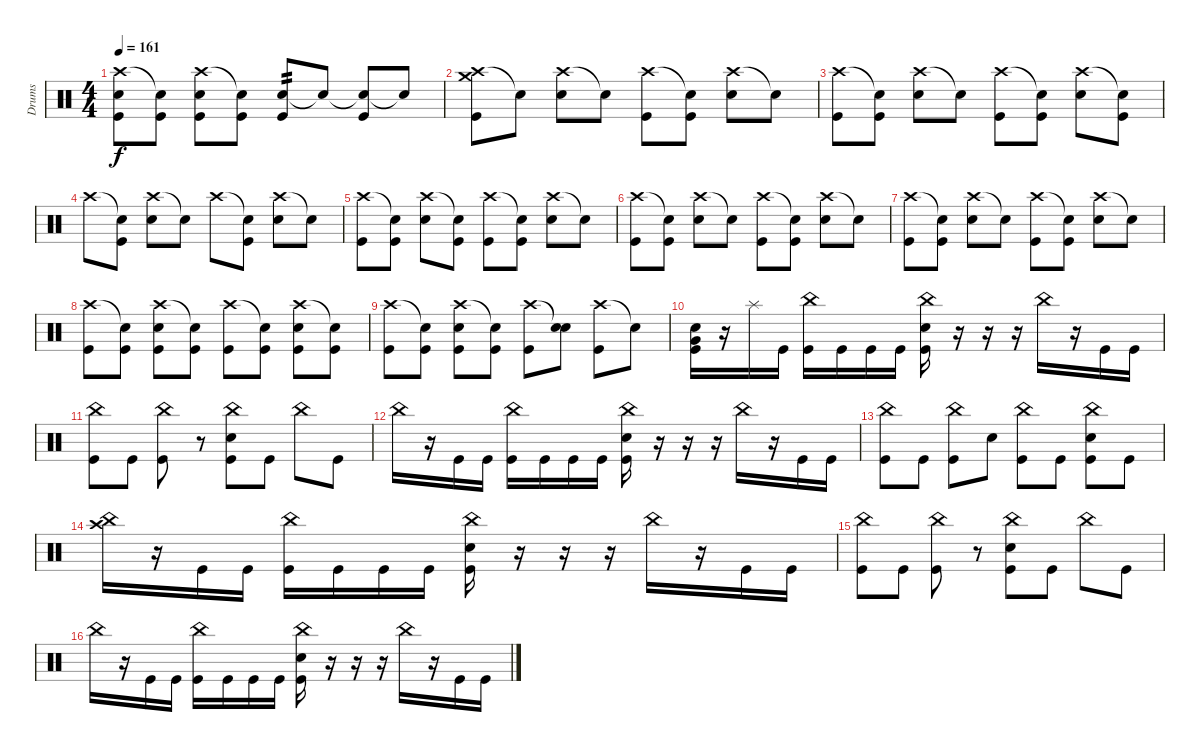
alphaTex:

\track ("Drums" "Drums") {instrument percussion}
\staff {score}
\articulation defaults
\ts (4 4)
\tempo 161
\clef neutral
\ks c
("Crash high (hit)" "Snare (hit) 2" "Kick (hit)").8{dy f} ("Snare (hit)"{t} "Kick (hit)").8 ("Crash high (hit)" "Snare (hit) 2" "Kick (hit)").8 ("Snare (hit)"{t} "Kick (hit)").8 ("Snare (hit) 2" "Kick (hit)").8{tp 2} "Snare (hit)"{t}.8 ("Snare (hit)"{t} "Kick (hit)").8 "Snare (hit)"{t}.8 |
("Crash high (hit)" "Crash medium (hit)" "Kick (hit)").8 "Snare (hit)"{t}.8 ("Crash high (hit)" "Snare (hit) 2").8 "Snare (hit)"{t}.8 ("Crash high (hit)" "Kick (hit)").8 ("Snare (hit)"{t} "Kick (hit)").8 ("Crash high (hit)" "Snare (hit) 2").8 "Snare (hit)"{t}.8 |
("Crash high (hit)" "Kick (hit)").8 ("Snare (hit)"{t} "Kick (hit)").8 ("Crash high (hit)" "Snare (hit) 2").8 "Snare (hit)"{t}.8 ("Crash high (hit)" "Kick (hit)").8 ("Snare (hit)"{t} "Kick (hit)").8 ("Crash high (hit)" "Snare (hit) 2").8 ("Snare (hit)"{t} "Kick (hit)").8 |
"Crash high (hit)".8 ("Snare (hit)"{t} "Kick (hit)").8 ("Crash high (hit)" "Snare (hit) 2").8 "Snare (hit)"{t}.8 "Crash high (hit)".8 ("Snare (hit)"{t} "Kick (hit)").8 ("Crash high (hit)" "Snare (hit) 2").8 "Snare (hit)"{t}.8 |
("Crash high (hit)" "Kick (hit)").8 ("Snare (hit)"{t} "Kick (hit)").8 ("Crash high (hit)" "Snare (hit) 2").8 ("Snare (hit)"{t} "Kick (hit)").8 ("Crash high (hit)" "Kick (hit)").8 ("Snare (hit)"{t} "Kick (hit)").8 ("Crash high (hit)" "Snare (hit) 2").8 "Snare (hit)"{t}.8 |
("Crash high (hit)" "Kick (hit)").8 ("Snare (hit)"{t} "Kick (hit)").8 ("Crash high (hit)" "Snare (hit) 2").8 "Snare (hit)"{t}.8 ("Crash high (hit)" "Kick (hit)").8 ("Snare (hit)"{t} "Kick (hit)").8 ("Crash high (hit)" "Snare (hit) 2").8 "Snare (hit)"{t}.8 |
("Crash high (hit)" "Kick (hit)").8 ("Snare (hit)"{t} "Kick (hit)").8 ("Crash high (hit)" "Snare (hit) 2").8 "Snare (hit)"{t}.8 ("Crash high (hit)" "Kick (hit)").8 ("Snare (hit)"{t} "Kick (hit)").8 ("Crash high (hit)" "Snare (hit) 2").8 "Snare (hit)"{t}.8 |
("Crash high (hit)" "Kick (hit)").8 ("Snare (hit)"{t} "Kick (hit)").8 ("Crash high (hit)" "Snare (hit) 2" "Kick (hit)").8 ("Snare (hit)"{t} "Kick (hit)").8 ("Crash high (hit)" "Kick (hit)").8 ("Snare (hit)"{t} "Kick (hit)").8 ("Crash high (hit)" "Snare (hit) 2" "Kick (hit)").8 ("Snare (hit)"{t} "Kick (hit)").8 |
("Crash high (hit)" "Kick (hit)").8 ("Snare (hit)"{t} "Kick (hit)").8 ("Crash high (hit)" "Snare (hit) 2" "Kick (hit)").8 ("Snare (hit)"{t} "Kick (hit)").8 ("Crash high (hit)" "Kick (hit)").8 ("Snare (hit)"{t} "Snare (hit) 2").8 ("Crash high (hit)" "Kick (hit)").8 "Snare (hit) 2"{t}.8 |
("Snare (hit) 2" "Very Low Tom (hit)" "Kick (hit)").16 r.16 "Splash (hit)".16 "Kick (hit)".16 ("China (hit)" "Kick (hit)").16 "Kick (hit)".16 "Kick (hit)".16 "Kick (hit)".16 ("China (hit)" "Snare (hit) 2" "Kick (hit)").16 r.16 r.16 r.16 "China (hit)".16 r.16 "Kick (hit)".16 "Kick (hit)".16 |
("China (hit)" "Kick (hit)").8 "Kick (hit)".8 ("China (hit)" "Kick (hit)").8 r.8 ("China (hit)" "Snare (hit) 2" "Kick (hit)").8 "Kick (hit)".8 "China (hit)".8 "Kick (hit)".8 |
"China (hit)".16 r.16 "Kick (hit)".16 "Kick (hit)".16 ("China (hit)" "Kick (hit)").16 "Kick (hit)".16 "Kick (hit)".16 "Kick (hit)".16 ("China (hit)" "Snare (hit) 2" "Kick (hit)").16 r.16 r.16 r.16 "China (hit)".16 r.16 "Kick (hit)".16 "Kick (hit)".16 |
("China (hit)" "Kick (hit)").8 "Kick (hit)".8 ("China (hit)" "Kick (hit)").8 "Snare (hit) 2".8 ("China (hit)" "Kick (hit)").8 "Kick (hit)".8 ("China (hit)" "Snare (hit) 2" "Kick (hit)").8 "Kick (hit)".8 |
("China (hit)" "Crash high (hit)").16 r.16 "Kick (hit)".16 "Kick (hit)".16 ("China (hit)" "Kick (hit)").16 "Kick (hit)".16 "Kick (hit)".16 "Kick (hit)".16 ("China (hit)" "Snare (hit) 2" "Kick (hit)").16 r.16 r.16 r.16 "China (hit)".16 r.16 "Kick (hit)".16 "Kick (hit)".16 |
("China (hit)" "Kick (hit)").8 "Kick (hit)".8 ("China (hit)" "Kick (hit)").8 r.8 ("China (hit)" "Snare (hit) 2" "Kick (hit)").8 "Kick (hit)".8 "China (hit)".8 "Kick (hit)".8 |
"China (hit)".16 r.16 "Kick (hit)".16 "Kick (hit)".16 ("China (hit)" "Kick (hit)").16 "Kick (hit)".16 "Kick (hit)".16 "Kick (hit)".16 ("China (hit)" "Snare (hit) 2" "Kick (hit)").16 r.16 r.16 r.16 "China (hit)".16 r.16 "Kick (hit)".16 "Kick (hit)".16
